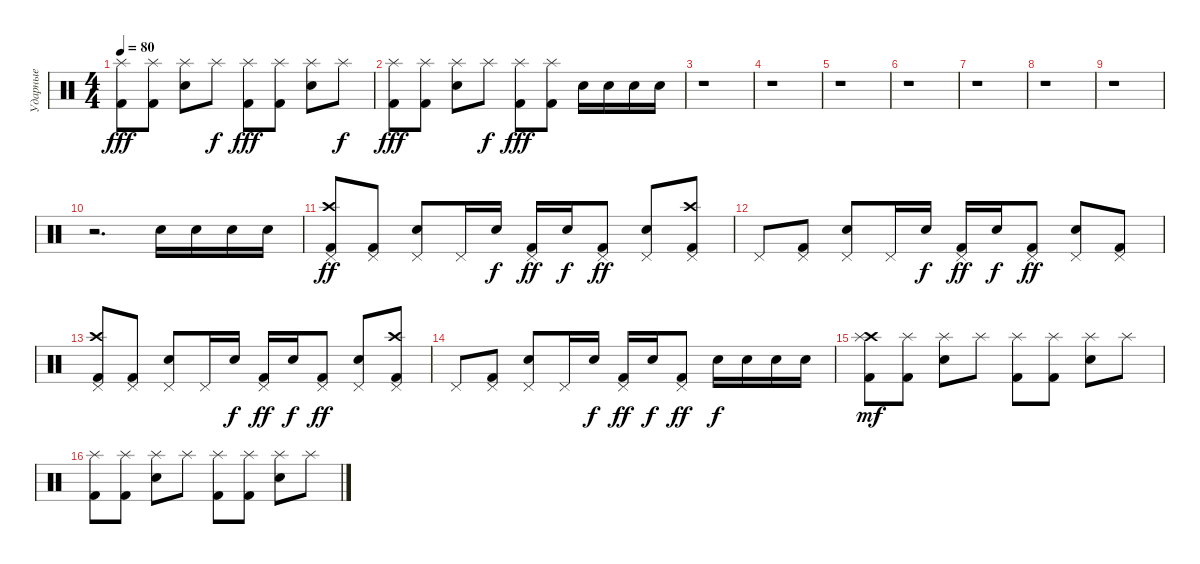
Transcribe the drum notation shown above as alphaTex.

\track ("Ударные" "Ударные") {instrument percussion}
\staff {score}
\articulation defaults
\ts (4 4)
\tempo 80
\clef neutral
\ks c
("Kick (hit) 2" "Splash (hit)").8{dy fff} ("Kick (hit) 2" "Splash (hit)").8 ("Snare (hit) 2" "Splash (hit)").8 "Splash (hit)".8{dy f} ("Kick (hit) 2" "Splash (hit)").8{dy fff} ("Kick (hit) 2" "Splash (hit)").8 ("Snare (hit) 2" "Splash (hit)").8 "Splash (hit)".8{dy f} |
("Kick (hit) 2" "Splash (hit)").8{dy fff} ("Kick (hit) 2" "Splash (hit)").8 ("Snare (hit) 2" "Splash (hit)").8 "Splash (hit)".8{dy f} ("Kick (hit) 2" "Splash (hit)").8{dy fff} ("Kick (hit) 2" "Splash (hit)").8 "Snare (hit) 2".16 "Snare (hit) 2".16 "Snare (hit) 2".16 "Snare (hit) 2".16 |
r.1 |
r.1 |
r.1 |
r.1 |
r.1 |
r.1 |
r.1 |
r.2{d} "Snare (hit) 2".16 "Snare (hit) 2".16 "Snare (hit) 2".16 "Snare (hit) 2".16 |
("Crash high (hit)" "Kick (hit) 2" "Pedal Hi-Hat (hit)").8{dy ff} ("Kick (hit) 2" "Pedal Hi-Hat (hit)").8 ("Snare (hit) 2" "Pedal Hi-Hat (hit)").8 "Pedal Hi-Hat (hit)".16 "Snare (hit) 2".16{dy f} ("Kick (hit) 2" "Pedal Hi-Hat (hit)").16{dy ff} "Snare (hit) 2".16{dy f} ("Kick (hit) 2" "Pedal Hi-Hat (hit)").8{dy ff} ("Snare (hit) 2" "Pedal Hi-Hat (hit)").8 ("Crash high (hit)" "Kick (hit) 2" "Pedal Hi-Hat (hit)").8 |
"Pedal Hi-Hat (hit)".8 ("Kick (hit) 2" "Pedal Hi-Hat (hit)").8 ("Snare (hit) 2" "Pedal Hi-Hat (hit)").8 "Pedal Hi-Hat (hit)".16 "Snare (hit) 2".16{dy f} ("Kick (hit) 2" "Pedal Hi-Hat (hit)").16{dy ff} "Snare (hit) 2".16{dy f} ("Kick (hit) 2" "Pedal Hi-Hat (hit)").8{dy ff} ("Snare (hit) 2" "Pedal Hi-Hat (hit)").8 ("Kick (hit) 2" "Pedal Hi-Hat (hit)").8 |
("Crash high (hit)" "Kick (hit) 2" "Pedal Hi-Hat (hit)").8 ("Kick (hit) 2" "Pedal Hi-Hat (hit)").8 ("Snare (hit) 2" "Pedal Hi-Hat (hit)").8 "Pedal Hi-Hat (hit)".16 "Snare (hit) 2".16{dy f} ("Kick (hit) 2" "Pedal Hi-Hat (hit)").16{dy ff} "Snare (hit) 2".16{dy f} ("Kick (hit) 2" "Pedal Hi-Hat (hit)").8{dy ff} ("Snare (hit) 2" "Pedal Hi-Hat (hit)").8 ("Crash high (hit)" "Kick (hit) 2" "Pedal Hi-Hat (hit)").8 |
"Pedal Hi-Hat (hit)".8 ("Kick (hit) 2" "Pedal Hi-Hat (hit)").8 ("Snare (hit) 2" "Pedal Hi-Hat (hit)").8 "Pedal Hi-Hat (hit)".16 "Snare (hit) 2".16{dy f} ("Kick (hit) 2" "Pedal Hi-Hat (hit)").16{dy ff} "Snare (hit) 2".16{dy f} ("Kick (hit) 2" "Pedal Hi-Hat (hit)").8{dy ff} "Snare (hit) 2".16{dy f} "Snare (hit) 2".16 "Snare (hit) 2".16 "Snare (hit) 2".16 |
("Crash high (hit)" "Kick (hit) 2" "Splash (hit)").8{dy mf} ("Kick (hit) 2" "Splash (hit)").8 ("Snare (hit) 2" "Splash (hit)").8 "Splash (hit)".8 ("Kick (hit) 2" "Splash (hit)").8 ("Kick (hit) 2" "Splash (hit)").8 ("Snare (hit) 2" "Splash (hit)").8 "Splash (hit)".8 |
("Kick (hit) 2" "Splash (hit)").8 ("Kick (hit) 2" "Splash (hit)").8 ("Snare (hit) 2" "Splash (hit)").8 "Splash (hit)".8 ("Kick (hit) 2" "Splash (hit)").8 ("Kick (hit) 2" "Splash (hit)").8 ("Snare (hit) 2" "Splash (hit)").8 "Splash (hit)".8
